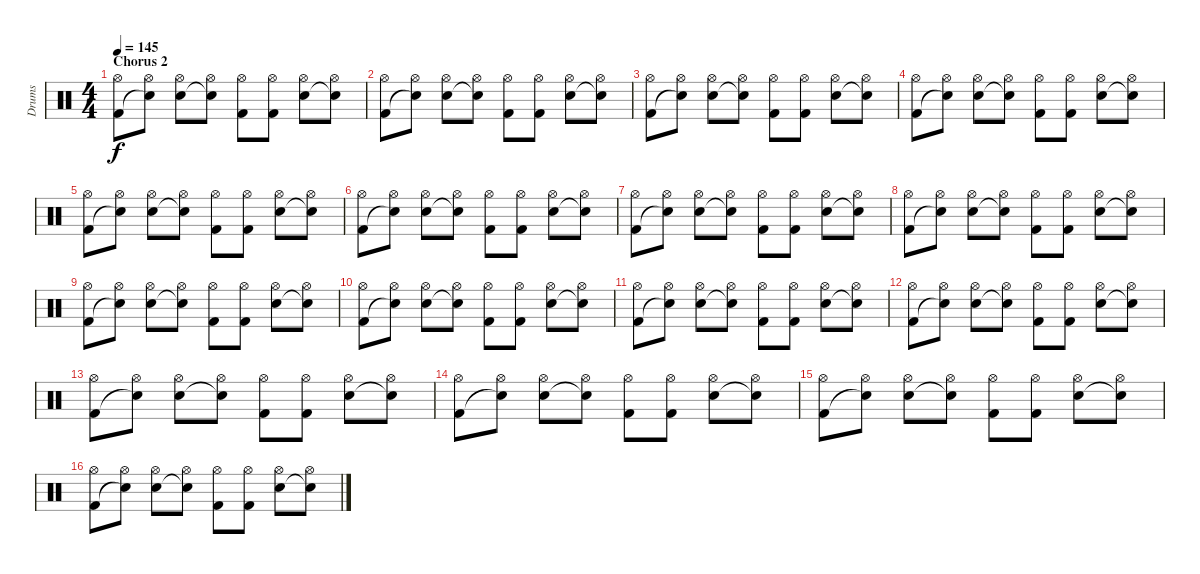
\track ("Drums" "Drums") {instrument percussion}
\staff {score}
\articulation defaults
\ts (4 4)
\section ("" "Chorus 2")
\tempo 145
\clef neutral
\ks c
("Hi-Hat (open)" "Kick (hit) 2").8{dy f} ("Hi-Hat (open)" "Snare (hit)"{t}).8 ("Hi-Hat (open)" "Electric Snare (hit)").8 ("Hi-Hat (open)" "Snare (hit)"{t}).8 ("Hi-Hat (open)" "Kick (hit) 2").8 ("Hi-Hat (open)" "Kick (hit) 2").8 ("Hi-Hat (open)" "Electric Snare (hit)").8 ("Hi-Hat (open)" "Snare (hit)"{t}).8 |
("Hi-Hat (open)" "Kick (hit) 2").8 ("Hi-Hat (open)" "Snare (hit)"{t}).8 ("Hi-Hat (open)" "Electric Snare (hit)").8 ("Hi-Hat (open)" "Snare (hit)"{t}).8 ("Hi-Hat (open)" "Kick (hit) 2").8 ("Hi-Hat (open)" "Kick (hit) 2").8 ("Hi-Hat (open)" "Electric Snare (hit)").8 ("Hi-Hat (open)" "Snare (hit)"{t}).8 |
("Hi-Hat (open)" "Kick (hit) 2").8 ("Hi-Hat (open)" "Snare (hit)"{t}).8 ("Hi-Hat (open)" "Electric Snare (hit)").8 ("Hi-Hat (open)" "Snare (hit)"{t}).8 ("Hi-Hat (open)" "Kick (hit) 2").8 ("Hi-Hat (open)" "Kick (hit) 2").8 ("Hi-Hat (open)" "Electric Snare (hit)").8 ("Hi-Hat (open)" "Snare (hit)"{t}).8 |
("Hi-Hat (open)" "Kick (hit) 2").8 ("Hi-Hat (open)" "Snare (hit)"{t}).8 ("Hi-Hat (open)" "Electric Snare (hit)").8 ("Hi-Hat (open)" "Snare (hit)"{t}).8 ("Hi-Hat (open)" "Kick (hit) 2").8 ("Hi-Hat (open)" "Kick (hit) 2").8 ("Hi-Hat (open)" "Electric Snare (hit)").8 ("Hi-Hat (open)" "Snare (hit)"{t}).8 |
("Hi-Hat (open)" "Kick (hit) 2").8 ("Hi-Hat (open)" "Snare (hit)"{t}).8 ("Hi-Hat (open)" "Electric Snare (hit)").8 ("Hi-Hat (open)" "Snare (hit)"{t}).8 ("Hi-Hat (open)" "Kick (hit) 2").8 ("Hi-Hat (open)" "Kick (hit) 2").8 ("Hi-Hat (open)" "Electric Snare (hit)").8 ("Hi-Hat (open)" "Snare (hit)"{t}).8 |
("Hi-Hat (open)" "Kick (hit) 2").8 ("Hi-Hat (open)" "Snare (hit)"{t}).8 ("Hi-Hat (open)" "Electric Snare (hit)").8 ("Hi-Hat (open)" "Snare (hit)"{t}).8 ("Hi-Hat (open)" "Kick (hit) 2").8 ("Hi-Hat (open)" "Kick (hit) 2").8 ("Hi-Hat (open)" "Electric Snare (hit)").8 ("Hi-Hat (open)" "Snare (hit)"{t}).8 |
("Hi-Hat (open)" "Kick (hit) 2").8 ("Hi-Hat (open)" "Snare (hit)"{t}).8 ("Hi-Hat (open)" "Electric Snare (hit)").8 ("Hi-Hat (open)" "Snare (hit)"{t}).8 ("Hi-Hat (open)" "Kick (hit) 2").8 ("Hi-Hat (open)" "Kick (hit) 2").8 ("Hi-Hat (open)" "Electric Snare (hit)").8 ("Hi-Hat (open)" "Snare (hit)"{t}).8 |
("Hi-Hat (open)" "Kick (hit) 2").8 ("Hi-Hat (open)" "Snare (hit)"{t}).8 ("Hi-Hat (open)" "Electric Snare (hit)").8 ("Hi-Hat (open)" "Snare (hit)"{t}).8 ("Hi-Hat (open)" "Kick (hit) 2").8 ("Hi-Hat (open)" "Kick (hit) 2").8 ("Hi-Hat (open)" "Electric Snare (hit)").8 ("Hi-Hat (open)" "Snare (hit)"{t}).8 |
("Hi-Hat (open)" "Kick (hit) 2").8 ("Hi-Hat (open)" "Snare (hit)"{t}).8 ("Hi-Hat (open)" "Electric Snare (hit)").8 ("Hi-Hat (open)" "Snare (hit)"{t}).8 ("Hi-Hat (open)" "Kick (hit) 2").8 ("Hi-Hat (open)" "Kick (hit) 2").8 ("Hi-Hat (open)" "Electric Snare (hit)").8 ("Hi-Hat (open)" "Snare (hit)"{t}).8 |
("Hi-Hat (open)" "Kick (hit) 2").8 ("Hi-Hat (open)" "Snare (hit)"{t}).8 ("Hi-Hat (open)" "Electric Snare (hit)").8 ("Hi-Hat (open)" "Snare (hit)"{t}).8 ("Hi-Hat (open)" "Kick (hit) 2").8 ("Hi-Hat (open)" "Kick (hit) 2").8 ("Hi-Hat (open)" "Electric Snare (hit)").8 ("Hi-Hat (open)" "Snare (hit)"{t}).8 |
("Hi-Hat (open)" "Kick (hit) 2").8 ("Hi-Hat (open)" "Snare (hit)"{t}).8 ("Hi-Hat (open)" "Electric Snare (hit)").8 ("Hi-Hat (open)" "Snare (hit)"{t}).8 ("Hi-Hat (open)" "Kick (hit) 2").8 ("Hi-Hat (open)" "Kick (hit) 2").8 ("Hi-Hat (open)" "Electric Snare (hit)").8 ("Hi-Hat (open)" "Snare (hit)"{t}).8 |
("Hi-Hat (open)" "Kick (hit) 2").8 ("Hi-Hat (open)" "Snare (hit)"{t}).8 ("Hi-Hat (open)" "Electric Snare (hit)").8 ("Hi-Hat (open)" "Snare (hit)"{t}).8 ("Hi-Hat (open)" "Kick (hit) 2").8 ("Hi-Hat (open)" "Kick (hit) 2").8 ("Hi-Hat (open)" "Electric Snare (hit)").8 ("Hi-Hat (open)" "Snare (hit)"{t}).8 |
("Hi-Hat (open)" "Kick (hit) 2").8 ("Hi-Hat (open)" "Snare (hit)"{t}).8 ("Hi-Hat (open)" "Electric Snare (hit)").8 ("Hi-Hat (open)" "Snare (hit)"{t}).8 ("Hi-Hat (open)" "Kick (hit) 2").8 ("Hi-Hat (open)" "Kick (hit) 2").8 ("Hi-Hat (open)" "Electric Snare (hit)").8 ("Hi-Hat (open)" "Snare (hit)"{t}).8 |
("Hi-Hat (open)" "Kick (hit) 2").8 ("Hi-Hat (open)" "Snare (hit)"{t}).8 ("Hi-Hat (open)" "Electric Snare (hit)").8 ("Hi-Hat (open)" "Snare (hit)"{t}).8 ("Hi-Hat (open)" "Kick (hit) 2").8 ("Hi-Hat (open)" "Kick (hit) 2").8 ("Hi-Hat (open)" "Electric Snare (hit)").8 ("Hi-Hat (open)" "Snare (hit)"{t}).8 |
("Hi-Hat (open)" "Kick (hit) 2").8 ("Hi-Hat (open)" "Snare (hit)"{t}).8 ("Hi-Hat (open)" "Electric Snare (hit)").8 ("Hi-Hat (open)" "Snare (hit)"{t}).8 ("Hi-Hat (open)" "Kick (hit) 2").8 ("Hi-Hat (open)" "Kick (hit) 2").8 ("Hi-Hat (open)" "Electric Snare (hit)").8 ("Hi-Hat (open)" "Snare (hit)"{t}).8 |
("Hi-Hat (open)" "Kick (hit) 2").8 ("Hi-Hat (open)" "Snare (hit)"{t}).8 ("Hi-Hat (open)" "Electric Snare (hit)").8 ("Hi-Hat (open)" "Snare (hit)"{t}).8 ("Hi-Hat (open)" "Kick (hit) 2").8 ("Hi-Hat (open)" "Kick (hit) 2").8 ("Hi-Hat (open)" "Electric Snare (hit)").8 ("Hi-Hat (open)" "Snare (hit)"{t}).8
